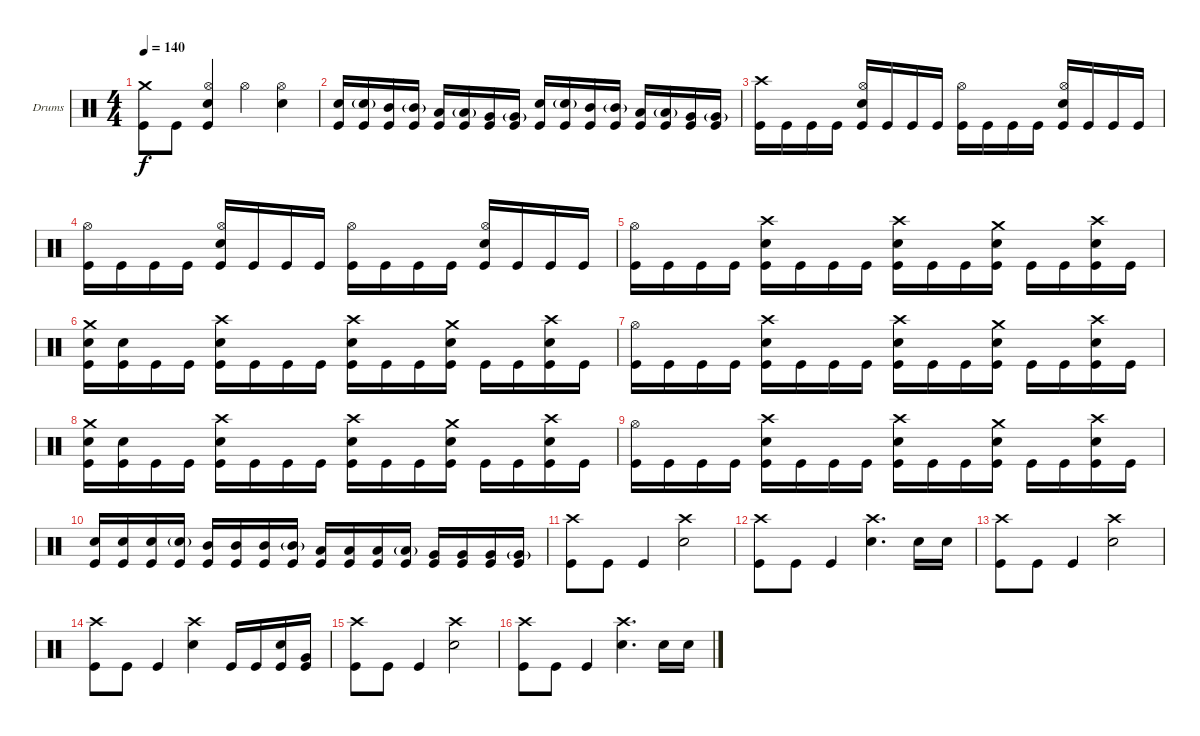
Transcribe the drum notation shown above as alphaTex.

\bracketExtendMode groupsimilarinstruments
\firstSystemTrackNameOrientation horizontal
\otherSystemsTrackNameOrientation horizontal
\track ("Drumkit" "Drums") {instrument percussion}
\staff {score}
\articulation defaults
\ts (4 4)
\tempo 140
\clef neutral
\ks c
("Crash medium (hit)" "Kick (hit)").8{dy f} "Kick (hit)".8 ("Hi-Hat (open)" "Snare (hit) 2" "Kick (hit)").4 "Hi-Hat (open)".4 ("Hi-Hat (open)" "Snare (hit) 2").4 |
("Snare (hit) 2" "Kick (hit)").16 ("Snare (hit) 2"{g} "Kick (hit)").16 ("Mid Tom (hit)" "Kick (hit)").16 ("Mid Tom (hit)"{g} "Kick (hit)").16 ("Low Tom (hit)" "Kick (hit)").16 ("Low Tom (hit)"{g} "Kick (hit)").16 ("Very Low Tom (hit)" "Kick (hit)").16 ("Very Low Tom (hit)"{g} "Kick (hit)").16 ("Snare (hit) 2" "Kick (hit)").16 ("Snare (hit) 2"{g} "Kick (hit)").16 ("Mid Tom (hit)" "Kick (hit)").16 ("Mid Tom (hit)"{g} "Kick (hit)").16 ("Low Tom (hit)" "Kick (hit)").16 ("Low Tom (hit)"{g} "Kick (hit)").16 ("Very Low Tom (hit)" "Kick (hit)").16 ("Very Low Tom (hit)"{g} "Kick (hit)").16 |
("Crash high (hit)" "Kick (hit)").16 "Kick (hit)".16 "Kick (hit)".16 "Kick (hit)".16 ("Hi-Hat (open)" "Snare (hit) 2" "Kick (hit)").16 "Kick (hit)".16 "Kick (hit)".16 "Kick (hit)".16 ("Hi-Hat (open)" "Kick (hit)").16 "Kick (hit)".16 "Kick (hit)".16 "Kick (hit)".16 ("Hi-Hat (open)" "Snare (hit) 2" "Kick (hit)").16 "Kick (hit)".16 "Kick (hit)".16 "Kick (hit)".16 |
("Hi-Hat (open)" "Kick (hit)").16 "Kick (hit)".16 "Kick (hit)".16 "Kick (hit)".16 ("Hi-Hat (open)" "Snare (hit) 2" "Kick (hit)").16 "Kick (hit)".16 "Kick (hit)".16 "Kick (hit)".16 ("Hi-Hat (open)" "Kick (hit)").16 "Kick (hit)".16 "Kick (hit)".16 "Kick (hit)".16 ("Hi-Hat (open)" "Snare (hit) 2" "Kick (hit)").16 "Kick (hit)".16 "Kick (hit)".16 "Kick (hit)".16 |
("Hi-Hat (open)" "Kick (hit)").16 "Kick (hit)".16 "Kick (hit)".16 "Kick (hit)".16 ("Crash high (hit)" "Snare (hit) 2" "Kick (hit)").16 "Kick (hit)".16 "Kick (hit)".16 "Kick (hit)".16 ("Crash high (hit)" "Snare (hit) 2" "Kick (hit)").16 "Kick (hit)".16 "Kick (hit)".16 ("Crash medium (hit)" "Snare (hit) 2" "Kick (hit)").16 "Kick (hit)".16 "Kick (hit)".16 ("Crash high (hit)" "Snare (hit) 2" "Kick (hit)").16 "Kick (hit)".16 |
("Crash medium (hit)" "Snare (hit) 2" "Kick (hit)").16 ("Snare (hit) 2" "Kick (hit)").16 "Kick (hit)".16 "Kick (hit)".16 ("Crash high (hit)" "Snare (hit) 2" "Kick (hit)").16 "Kick (hit)".16 "Kick (hit)".16 "Kick (hit)".16 ("Crash high (hit)" "Snare (hit) 2" "Kick (hit)").16 "Kick (hit)".16 "Kick (hit)".16 ("Crash medium (hit)" "Snare (hit) 2" "Kick (hit)").16 "Kick (hit)".16 "Kick (hit)".16 ("Crash high (hit)" "Snare (hit) 2" "Kick (hit)").16 "Kick (hit)".16 |
("Hi-Hat (open)" "Kick (hit)").16 "Kick (hit)".16 "Kick (hit)".16 "Kick (hit)".16 ("Crash high (hit)" "Snare (hit) 2" "Kick (hit)").16 "Kick (hit)".16 "Kick (hit)".16 "Kick (hit)".16 ("Crash high (hit)" "Snare (hit) 2" "Kick (hit)").16 "Kick (hit)".16 "Kick (hit)".16 ("Crash medium (hit)" "Snare (hit) 2" "Kick (hit)").16 "Kick (hit)".16 "Kick (hit)".16 ("Crash high (hit)" "Snare (hit) 2" "Kick (hit)").16 "Kick (hit)".16 |
("Crash medium (hit)" "Snare (hit) 2" "Kick (hit)").16 ("Snare (hit) 2" "Kick (hit)").16 "Kick (hit)".16 "Kick (hit)".16 ("Crash high (hit)" "Snare (hit) 2" "Kick (hit)").16 "Kick (hit)".16 "Kick (hit)".16 "Kick (hit)".16 ("Crash high (hit)" "Snare (hit) 2" "Kick (hit)").16 "Kick (hit)".16 "Kick (hit)".16 ("Crash medium (hit)" "Snare (hit) 2" "Kick (hit)").16 "Kick (hit)".16 "Kick (hit)".16 ("Crash high (hit)" "Snare (hit) 2" "Kick (hit)").16 "Kick (hit)".16 |
("Hi-Hat (open)" "Kick (hit)").16 "Kick (hit)".16 "Kick (hit)".16 "Kick (hit)".16 ("Crash high (hit)" "Snare (hit) 2" "Kick (hit)").16 "Kick (hit)".16 "Kick (hit)".16 "Kick (hit)".16 ("Crash high (hit)" "Snare (hit) 2" "Kick (hit)").16 "Kick (hit)".16 "Kick (hit)".16 ("Crash medium (hit)" "Snare (hit) 2" "Kick (hit)").16 "Kick (hit)".16 "Kick (hit)".16 ("Crash high (hit)" "Snare (hit) 2" "Kick (hit)").16 "Kick (hit)".16 |
("Snare (hit) 2" "Kick (hit)").16 ("Snare (hit) 2" "Kick (hit)").16 ("Snare (hit) 2" "Kick (hit)").16 ("Snare (hit) 2"{g} "Kick (hit)").16 ("Mid Tom (hit)" "Kick (hit)").16 ("Mid Tom (hit)" "Kick (hit)").16 ("Mid Tom (hit)" "Kick (hit)").16 ("Mid Tom (hit)"{g} "Kick (hit)").16 ("Low Tom (hit)" "Kick (hit)").16 ("Low Tom (hit)" "Kick (hit)").16 ("Low Tom (hit)" "Kick (hit)").16 ("Low Tom (hit)"{g} "Kick (hit)").16 ("Very Low Tom (hit)" "Kick (hit)").16 ("Very Low Tom (hit)" "Kick (hit)").16 ("Very Low Tom (hit)" "Kick (hit)").16 ("Very Low Tom (hit)"{g} "Kick (hit)").16 |
("Crash high (hit)" "Kick (hit)").8 "Kick (hit)".8 "Kick (hit)".4 ("Crash high (hit)" "Snare (hit) 2").2 |
("Crash high (hit)" "Kick (hit)").8 "Kick (hit)".8 "Kick (hit)".4 ("Crash high (hit)" "Snare (hit) 2").4{d} "Snare (hit) 2".16 "Snare (hit) 2".16 |
("Crash high (hit)" "Kick (hit)").8 "Kick (hit)".8 "Kick (hit)".4 ("Crash high (hit)" "Snare (hit) 2").2 |
("Crash high (hit)" "Kick (hit)").8 "Kick (hit)".8 "Kick (hit)".4 ("Crash high (hit)" "Snare (hit) 2").4 "Kick (hit)".16 "Kick (hit)".16 ("Snare (hit) 2" "Kick (hit)").16 ("Very Low Tom (hit)" "Kick (hit)").16 |
("Crash high (hit)" "Kick (hit)").8 "Kick (hit)".8 "Kick (hit)".4 ("Crash high (hit)" "Snare (hit) 2").2 |
("Crash high (hit)" "Kick (hit)").8 "Kick (hit)".8 "Kick (hit)".4 ("Crash high (hit)" "Snare (hit) 2").4{d} "Snare (hit) 2".16 "Snare (hit) 2".16
